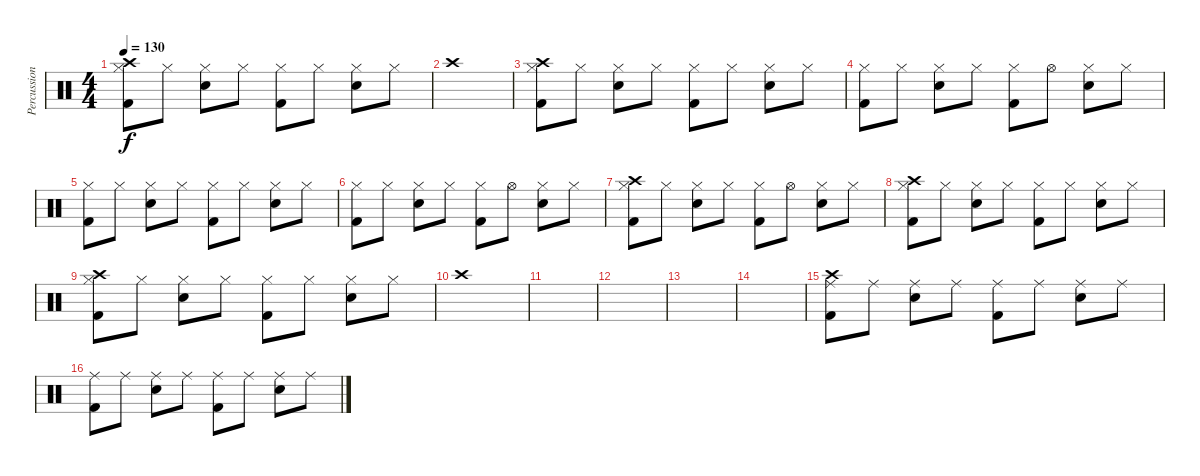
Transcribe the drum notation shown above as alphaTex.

\track ("Percussion" "Percussion") {instrument percussion}
\staff {score}
\articulation defaults
\ts (4 4)
\tempo 130
\clef neutral
\ks c
("Crash high (hit)" "Hi-Hat (closed)" "Kick (hit) 2").8{dy f} "Hi-Hat (closed)".8 ("Hi-Hat (closed)" "Electric Snare (hit)").8 "Hi-Hat (closed)".8 ("Hi-Hat (closed)" "Kick (hit) 2").8 "Hi-Hat (closed)".8 ("Hi-Hat (closed)" "Electric Snare (hit)").8 "Hi-Hat (closed)".8 |
"Crash high (hit)".1 |
("Crash high (hit)" "Hi-Hat (closed)" "Kick (hit) 2").8 "Hi-Hat (closed)".8 ("Hi-Hat (closed)" "Electric Snare (hit)").8 "Hi-Hat (closed)".8 ("Hi-Hat (closed)" "Kick (hit) 2").8 "Hi-Hat (closed)".8 ("Hi-Hat (closed)" "Electric Snare (hit)").8 "Hi-Hat (closed)".8 |
("Hi-Hat (closed)" "Kick (hit) 2").8 "Hi-Hat (closed)".8 ("Hi-Hat (closed)" "Electric Snare (hit)").8 "Hi-Hat (closed)".8 ("Hi-Hat (closed)" "Kick (hit) 2").8 "Hi-Hat (open)".8 ("Hi-Hat (closed)" "Electric Snare (hit)").8 "Hi-Hat (closed)".8 |
("Hi-Hat (closed)" "Kick (hit) 2").8 "Hi-Hat (closed)".8 ("Hi-Hat (closed)" "Electric Snare (hit)").8 "Hi-Hat (closed)".8 ("Hi-Hat (closed)" "Kick (hit) 2").8 "Hi-Hat (closed)".8 ("Hi-Hat (closed)" "Electric Snare (hit)").8 "Hi-Hat (closed)".8 |
("Hi-Hat (closed)" "Kick (hit) 2").8 "Hi-Hat (closed)".8 ("Hi-Hat (closed)" "Electric Snare (hit)").8 "Hi-Hat (closed)".8 ("Hi-Hat (closed)" "Kick (hit) 2").8 "Hi-Hat (open)".8 ("Hi-Hat (closed)" "Electric Snare (hit)").8 "Hi-Hat (closed)".8 |
("Crash high (hit)" "Hi-Hat (closed)" "Kick (hit) 2").8 "Hi-Hat (closed)".8 ("Hi-Hat (closed)" "Electric Snare (hit)").8 "Hi-Hat (closed)".8 ("Hi-Hat (closed)" "Kick (hit) 2").8 "Hi-Hat (open)".8 ("Hi-Hat (closed)" "Electric Snare (hit)").8 "Hi-Hat (closed)".8 |
("Crash high (hit)" "Hi-Hat (closed)" "Kick (hit) 2").8 "Hi-Hat (closed)".8 ("Hi-Hat (closed)" "Electric Snare (hit)").8 "Hi-Hat (closed)".8 ("Hi-Hat (closed)" "Kick (hit) 2").8 "Hi-Hat (closed)".8 ("Hi-Hat (closed)" "Electric Snare (hit)").8 "Hi-Hat (closed)".8 |
("Crash high (hit)" "Hi-Hat (closed)" "Kick (hit) 2").8 "Hi-Hat (closed)".8 ("Hi-Hat (closed)" "Electric Snare (hit)").8 "Hi-Hat (closed)".8 ("Hi-Hat (closed)" "Kick (hit) 2").8 "Hi-Hat (closed)".8 ("Hi-Hat (closed)" "Electric Snare (hit)").8 "Hi-Hat (closed)".8 |
"Crash high (hit)".1 |
|
|
|
|
("Crash high (hit)" "Ride (middle)" "Kick (hit) 2").8 "Ride (middle)".8 ("Ride (middle)" "Electric Snare (hit)").8 "Ride (middle)".8 ("Ride (middle)" "Kick (hit) 2").8 "Ride (middle)".8 ("Ride (middle)" "Electric Snare (hit)").8 "Ride (middle)".8 |
("Ride (middle)" "Kick (hit) 2").8 "Ride (middle)".8 ("Ride (middle)" "Electric Snare (hit)").8 "Ride (middle)".8 ("Ride (middle)" "Kick (hit) 2").8 "Ride (middle)".8 ("Ride (middle)" "Electric Snare (hit)").8 "Ride (middle)".8
